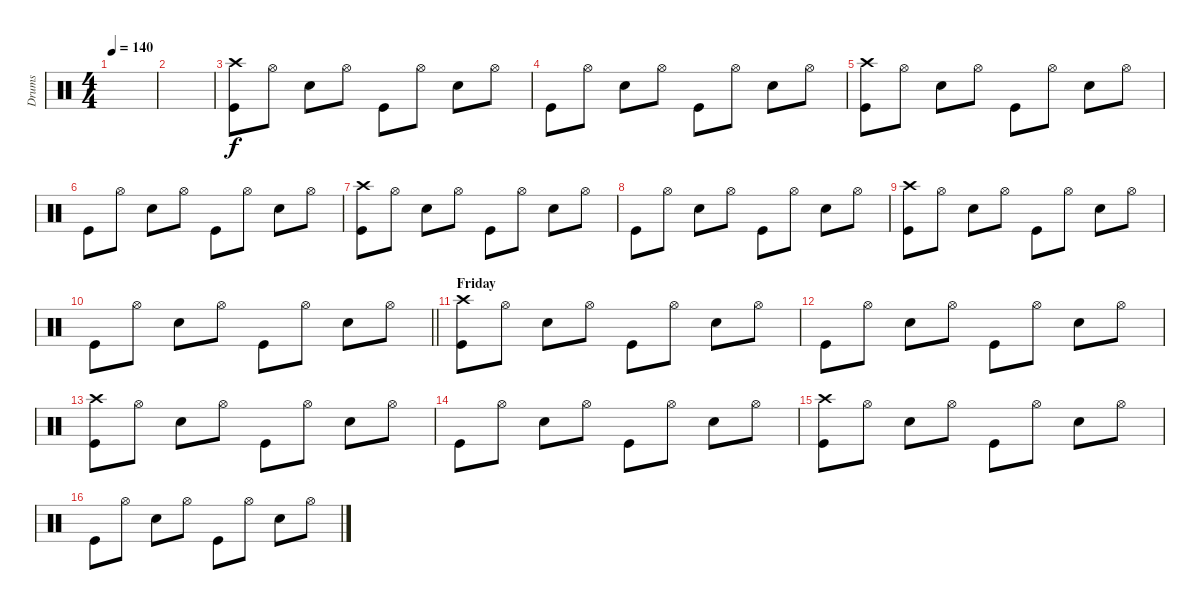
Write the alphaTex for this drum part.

\track ("Drums" "Drums") {instrument percussion}
\staff {score}
\articulation defaults
\ts (4 4)
\tempo 140
\clef neutral
\ks c
|
|
("Crash high (hit)" "Kick (hit)").8 "Hi-Hat (open)".8 "Electric Snare (hit)".8 "Hi-Hat (open)".8 "Kick (hit)".8 "Hi-Hat (open)".8 "Electric Snare (hit)".8 "Hi-Hat (open)".8 |
"Kick (hit)".8 "Hi-Hat (open)".8 "Electric Snare (hit)".8 "Hi-Hat (open)".8 "Kick (hit)".8 "Hi-Hat (open)".8 "Electric Snare (hit)".8 "Hi-Hat (open)".8 |
("Crash high (hit)" "Kick (hit)").8 "Hi-Hat (open)".8 "Electric Snare (hit)".8 "Hi-Hat (open)".8 "Kick (hit)".8 "Hi-Hat (open)".8 "Electric Snare (hit)".8 "Hi-Hat (open)".8 |
"Kick (hit)".8 "Hi-Hat (open)".8 "Electric Snare (hit)".8 "Hi-Hat (open)".8 "Kick (hit)".8 "Hi-Hat (open)".8 "Electric Snare (hit)".8 "Hi-Hat (open)".8 |
("Crash high (hit)" "Kick (hit)").8 "Hi-Hat (open)".8 "Electric Snare (hit)".8 "Hi-Hat (open)".8 "Kick (hit)".8 "Hi-Hat (open)".8 "Electric Snare (hit)".8 "Hi-Hat (open)".8 |
"Kick (hit)".8 "Hi-Hat (open)".8 "Electric Snare (hit)".8 "Hi-Hat (open)".8 "Kick (hit)".8 "Hi-Hat (open)".8 "Electric Snare (hit)".8 "Hi-Hat (open)".8 |
("Crash high (hit)" "Kick (hit)").8 "Hi-Hat (open)".8 "Electric Snare (hit)".8 "Hi-Hat (open)".8 "Kick (hit)".8 "Hi-Hat (open)".8 "Electric Snare (hit)".8 "Hi-Hat (open)".8 |
\barLineRight lightlight "Kick (hit)".8 "Hi-Hat (open)".8 "Electric Snare (hit)".8 "Hi-Hat (open)".8 "Kick (hit)".8 "Hi-Hat (open)".8 "Electric Snare (hit)".8 "Hi-Hat (open)".8
|
\section ("" "Friday")
("Crash high (hit)" "Kick (hit)").8 "Hi-Hat (open)".8 "Electric Snare (hit)".8 "Hi-Hat (open)".8 "Kick (hit)".8 "Hi-Hat (open)".8 "Electric Snare (hit)".8 "Hi-Hat (open)".8 |
"Kick (hit)".8 "Hi-Hat (open)".8 "Electric Snare (hit)".8 "Hi-Hat (open)".8 "Kick (hit)".8 "Hi-Hat (open)".8 "Electric Snare (hit)".8 "Hi-Hat (open)".8 |
("Crash high (hit)" "Kick (hit)").8 "Hi-Hat (open)".8 "Electric Snare (hit)".8 "Hi-Hat (open)".8 "Kick (hit)".8 "Hi-Hat (open)".8 "Electric Snare (hit)".8 "Hi-Hat (open)".8 |
"Kick (hit)".8 "Hi-Hat (open)".8 "Electric Snare (hit)".8 "Hi-Hat (open)".8 "Kick (hit)".8 "Hi-Hat (open)".8 "Electric Snare (hit)".8 "Hi-Hat (open)".8 |
("Crash high (hit)" "Kick (hit)").8 "Hi-Hat (open)".8 "Electric Snare (hit)".8 "Hi-Hat (open)".8 "Kick (hit)".8 "Hi-Hat (open)".8 "Electric Snare (hit)".8 "Hi-Hat (open)".8 |
"Kick (hit)".8 "Hi-Hat (open)".8 "Electric Snare (hit)".8 "Hi-Hat (open)".8 "Kick (hit)".8 "Hi-Hat (open)".8 "Electric Snare (hit)".8 "Hi-Hat (open)".8
